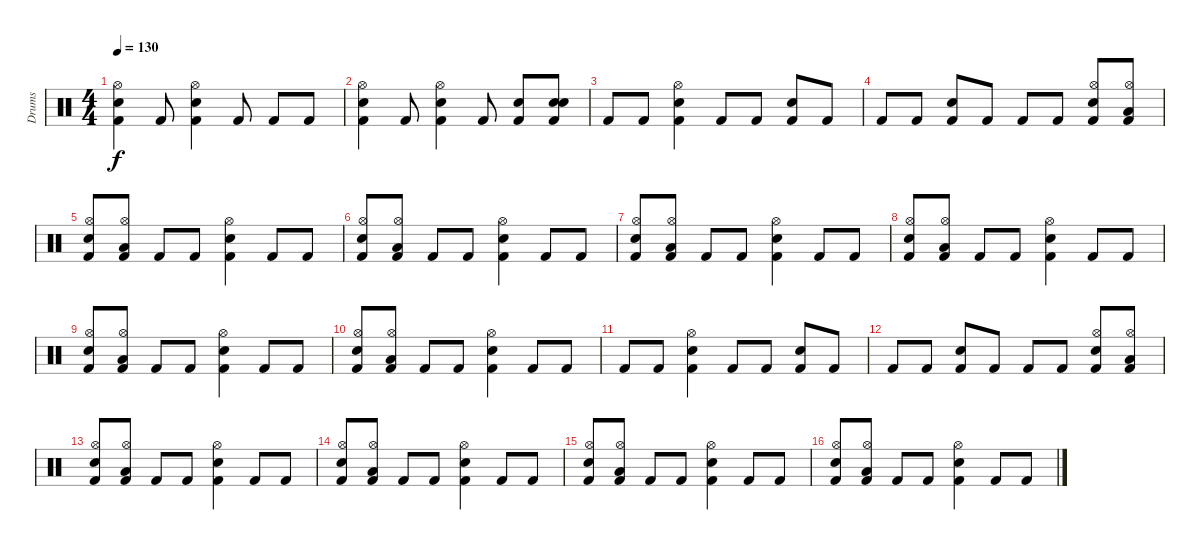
\track ("Drums" "Drums") {instrument percussion}
\staff {score}
\articulation defaults
\ts (4 4)
\tempo 130
\clef neutral
\ks c
("Kick (hit) 2" "Snare (hit) 2" "Hi-Hat (open)").4{dy f} "Kick (hit) 2".8 ("Kick (hit) 2" "Snare (hit) 2" "Hi-Hat (open)").4 "Kick (hit) 2".8 "Kick (hit) 2".8 "Kick (hit) 2".8 |
("Kick (hit) 2" "Snare (hit) 2" "Hi-Hat (open)").4 "Kick (hit) 2".8 ("Kick (hit) 2" "Snare (hit) 2" "Hi-Hat (open)").4 "Kick (hit) 2".8 ("Kick (hit) 2" "Electric Snare (hit)").8 ("Kick (hit) 2" "Snare (hit) 2" "Electric Snare (hit)").8 |
"Kick (hit) 2".8 "Kick (hit) 2".8 ("Kick (hit) 2" "Snare (hit) 2" "Hi-Hat (open)").4 "Kick (hit) 2".8 "Kick (hit) 2".8 ("Kick (hit) 2" "Snare (hit) 2").8 "Kick (hit) 2".8 |
"Kick (hit) 2".8 "Kick (hit) 2".8 ("Kick (hit) 2" "Snare (hit) 2").8 "Kick (hit) 2".8 "Kick (hit) 2".8 "Kick (hit) 2".8 ("Kick (hit) 2" "Hi-Hat (open)" "Electric Snare (hit)").8 ("Kick (hit) 2" "Hi-Hat (open)" "Low Floor Tom (hit)").8 |
("Kick (hit) 2" "Hi-Hat (open)" "Electric Snare (hit)").8 ("Kick (hit) 2" "Hi-Hat (open)" "Low Floor Tom (hit)").8 "Kick (hit) 2".8 "Kick (hit) 2".8 ("Kick (hit) 2" "Snare (hit) 2" "Hi-Hat (open)").4 "Kick (hit) 2".8 "Kick (hit) 2".8 |
("Kick (hit) 2" "Hi-Hat (open)" "Electric Snare (hit)").8 ("Kick (hit) 2" "Hi-Hat (open)" "Low Floor Tom (hit)").8 "Kick (hit) 2".8 "Kick (hit) 2".8 ("Kick (hit) 2" "Snare (hit) 2" "Hi-Hat (open)").4 "Kick (hit) 2".8 "Kick (hit) 2".8 |
("Kick (hit) 2" "Hi-Hat (open)" "Electric Snare (hit)").8 ("Kick (hit) 2" "Hi-Hat (open)" "Low Floor Tom (hit)").8 "Kick (hit) 2".8 "Kick (hit) 2".8 ("Kick (hit) 2" "Snare (hit) 2" "Hi-Hat (open)").4 "Kick (hit) 2".8 "Kick (hit) 2".8 |
("Kick (hit) 2" "Hi-Hat (open)" "Electric Snare (hit)").8 ("Kick (hit) 2" "Hi-Hat (open)" "Low Floor Tom (hit)").8 "Kick (hit) 2".8 "Kick (hit) 2".8 ("Kick (hit) 2" "Snare (hit) 2" "Hi-Hat (open)").4 "Kick (hit) 2".8 "Kick (hit) 2".8 |
("Kick (hit) 2" "Hi-Hat (open)" "Electric Snare (hit)").8 ("Kick (hit) 2" "Hi-Hat (open)" "Low Floor Tom (hit)").8 "Kick (hit) 2".8 "Kick (hit) 2".8 ("Kick (hit) 2" "Snare (hit) 2" "Hi-Hat (open)").4 "Kick (hit) 2".8 "Kick (hit) 2".8 |
("Kick (hit) 2" "Hi-Hat (open)" "Electric Snare (hit)").8 ("Kick (hit) 2" "Hi-Hat (open)" "Low Floor Tom (hit)").8 "Kick (hit) 2".8 "Kick (hit) 2".8 ("Kick (hit) 2" "Snare (hit) 2" "Hi-Hat (open)").4 "Kick (hit) 2".8 "Kick (hit) 2".8 |
"Kick (hit) 2".8 "Kick (hit) 2".8 ("Kick (hit) 2" "Snare (hit) 2" "Hi-Hat (open)").4 "Kick (hit) 2".8 "Kick (hit) 2".8 ("Kick (hit) 2" "Snare (hit) 2").8 "Kick (hit) 2".8 |
"Kick (hit) 2".8 "Kick (hit) 2".8 ("Kick (hit) 2" "Snare (hit) 2").8 "Kick (hit) 2".8 "Kick (hit) 2".8 "Kick (hit) 2".8 ("Kick (hit) 2" "Hi-Hat (open)" "Electric Snare (hit)").8 ("Kick (hit) 2" "Hi-Hat (open)" "Low Floor Tom (hit)").8 |
("Kick (hit) 2" "Hi-Hat (open)" "Electric Snare (hit)").8 ("Kick (hit) 2" "Hi-Hat (open)" "Low Floor Tom (hit)").8 "Kick (hit) 2".8 "Kick (hit) 2".8 ("Kick (hit) 2" "Snare (hit) 2" "Hi-Hat (open)").4 "Kick (hit) 2".8 "Kick (hit) 2".8 |
("Kick (hit) 2" "Hi-Hat (open)" "Electric Snare (hit)").8 ("Kick (hit) 2" "Hi-Hat (open)" "Low Floor Tom (hit)").8 "Kick (hit) 2".8 "Kick (hit) 2".8 ("Kick (hit) 2" "Snare (hit) 2" "Hi-Hat (open)").4 "Kick (hit) 2".8 "Kick (hit) 2".8 |
("Kick (hit) 2" "Hi-Hat (open)" "Electric Snare (hit)").8 ("Kick (hit) 2" "Hi-Hat (open)" "Low Floor Tom (hit)").8 "Kick (hit) 2".8 "Kick (hit) 2".8 ("Kick (hit) 2" "Snare (hit) 2" "Hi-Hat (open)").4 "Kick (hit) 2".8 "Kick (hit) 2".8 |
("Kick (hit) 2" "Hi-Hat (open)" "Electric Snare (hit)").8 ("Kick (hit) 2" "Hi-Hat (open)" "Low Floor Tom (hit)").8 "Kick (hit) 2".8 "Kick (hit) 2".8 ("Kick (hit) 2" "Snare (hit) 2" "Hi-Hat (open)").4 "Kick (hit) 2".8 "Kick (hit) 2".8
